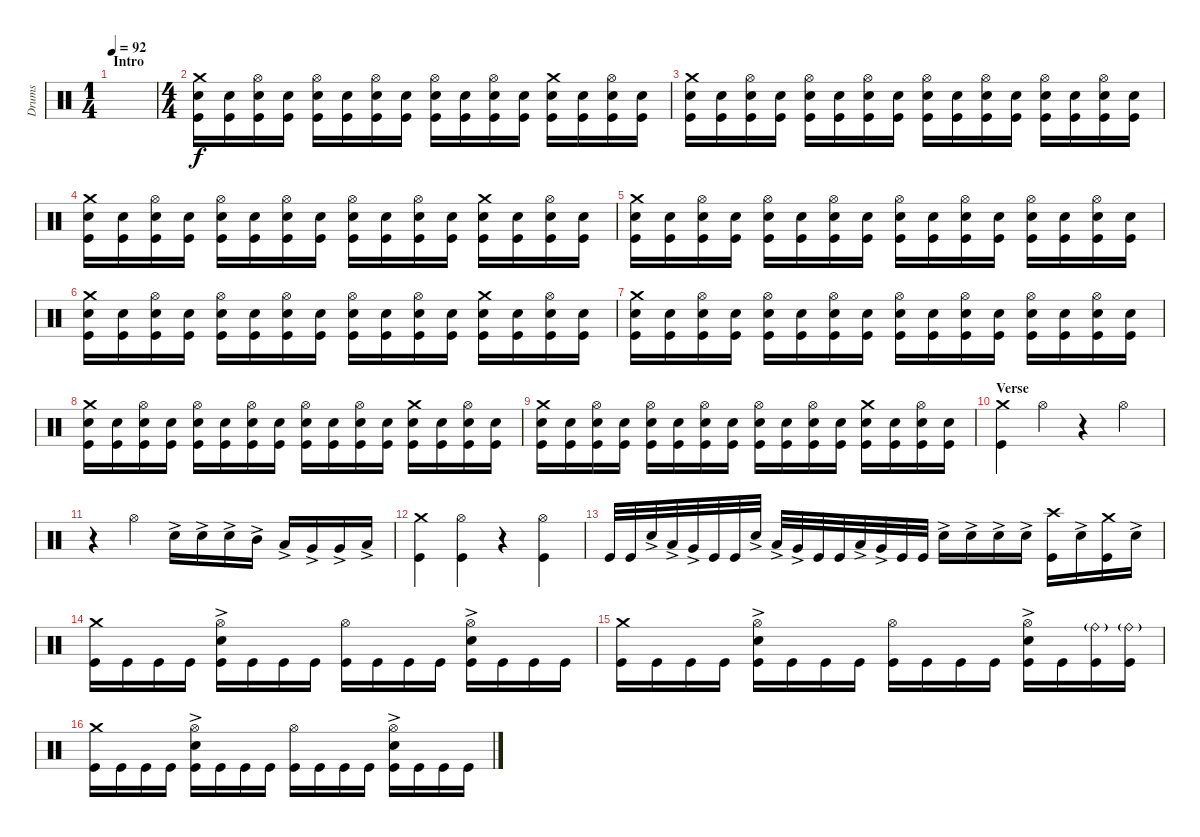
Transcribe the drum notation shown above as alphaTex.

\track ("Drums" "Drums") {instrument percussion}
\staff {score}
\articulation defaults
\ts (1 4)
\section ("" "Intro")
\tempo 92
\clef neutral
\ks c
|
\ts (4 4)
("Kick (hit)" "Snare (hit) 2" "Crash medium (hit)").16 ("Kick (hit)" "Snare (hit) 2").16 ("Kick (hit)" "Hi-Hat (open)" "Snare (hit) 2").16 ("Kick (hit)" "Snare (hit) 2").16 ("Kick (hit)" "Hi-Hat (open)" "Snare (hit) 2").16 ("Kick (hit)" "Snare (hit) 2").16 ("Kick (hit)" "Hi-Hat (open)" "Snare (hit) 2").16 ("Kick (hit)" "Snare (hit) 2").16 ("Kick (hit)" "Hi-Hat (open)" "Snare (hit) 2").16 ("Kick (hit)" "Snare (hit) 2").16 ("Kick (hit)" "Hi-Hat (open)" "Snare (hit) 2").16 ("Kick (hit)" "Snare (hit) 2").16 ("Kick (hit)" "Snare (hit) 2" "Crash medium (hit)").16 ("Kick (hit)" "Snare (hit) 2").16 ("Kick (hit)" "Hi-Hat (open)" "Snare (hit) 2").16 ("Kick (hit)" "Snare (hit) 2").16 |
("Kick (hit)" "Crash medium (hit)" "Snare (hit) 2").16 ("Kick (hit)" "Snare (hit) 2").16 ("Kick (hit)" "Hi-Hat (open)" "Snare (hit) 2").16 ("Kick (hit)" "Snare (hit) 2").16 ("Kick (hit)" "Hi-Hat (open)" "Snare (hit) 2").16 ("Kick (hit)" "Snare (hit) 2").16 ("Kick (hit)" "Hi-Hat (open)" "Snare (hit) 2").16 ("Kick (hit)" "Snare (hit) 2").16 ("Kick (hit)" "Hi-Hat (open)" "Snare (hit) 2").16 ("Kick (hit)" "Snare (hit) 2").16 ("Kick (hit)" "Hi-Hat (open)" "Snare (hit) 2").16 ("Kick (hit)" "Snare (hit) 2").16 ("Kick (hit)" "Hi-Hat (open)" "Snare (hit) 2").16 ("Kick (hit)" "Snare (hit) 2").16 ("Kick (hit)" "Hi-Hat (open)" "Snare (hit) 2").16 ("Kick (hit)" "Snare (hit) 2").16 |
("Kick (hit)" "Snare (hit) 2" "Crash medium (hit)").16 ("Kick (hit)" "Snare (hit) 2").16 ("Kick (hit)" "Hi-Hat (open)" "Snare (hit) 2").16 ("Kick (hit)" "Snare (hit) 2").16 ("Kick (hit)" "Hi-Hat (open)" "Snare (hit) 2").16 ("Kick (hit)" "Snare (hit) 2").16 ("Kick (hit)" "Hi-Hat (open)" "Snare (hit) 2").16 ("Kick (hit)" "Snare (hit) 2").16 ("Kick (hit)" "Hi-Hat (open)" "Snare (hit) 2").16 ("Kick (hit)" "Snare (hit) 2").16 ("Kick (hit)" "Hi-Hat (open)" "Snare (hit) 2").16 ("Kick (hit)" "Snare (hit) 2").16 ("Kick (hit)" "Snare (hit) 2" "Crash medium (hit)").16 ("Kick (hit)" "Snare (hit) 2").16 ("Kick (hit)" "Hi-Hat (open)" "Snare (hit) 2").16 ("Kick (hit)" "Snare (hit) 2").16 |
("Kick (hit)" "Crash medium (hit)" "Snare (hit) 2").16 ("Kick (hit)" "Snare (hit) 2").16 ("Kick (hit)" "Hi-Hat (open)" "Snare (hit) 2").16 ("Kick (hit)" "Snare (hit) 2").16 ("Kick (hit)" "Hi-Hat (open)" "Snare (hit) 2").16 ("Kick (hit)" "Snare (hit) 2").16 ("Kick (hit)" "Hi-Hat (open)" "Snare (hit) 2").16 ("Kick (hit)" "Snare (hit) 2").16 ("Kick (hit)" "Hi-Hat (open)" "Snare (hit) 2").16 ("Kick (hit)" "Snare (hit) 2").16 ("Kick (hit)" "Hi-Hat (open)" "Snare (hit) 2").16 ("Kick (hit)" "Snare (hit) 2").16 ("Kick (hit)" "Hi-Hat (open)" "Snare (hit) 2").16 ("Kick (hit)" "Snare (hit) 2").16 ("Kick (hit)" "Hi-Hat (open)" "Snare (hit) 2").16 ("Kick (hit)" "Snare (hit) 2").16 |
("Kick (hit)" "Snare (hit) 2" "Crash medium (hit)").16 ("Kick (hit)" "Snare (hit) 2").16 ("Kick (hit)" "Hi-Hat (open)" "Snare (hit) 2").16 ("Kick (hit)" "Snare (hit) 2").16 ("Kick (hit)" "Hi-Hat (open)" "Snare (hit) 2").16 ("Kick (hit)" "Snare (hit) 2").16 ("Kick (hit)" "Hi-Hat (open)" "Snare (hit) 2").16 ("Kick (hit)" "Snare (hit) 2").16 ("Kick (hit)" "Hi-Hat (open)" "Snare (hit) 2").16 ("Kick (hit)" "Snare (hit) 2").16 ("Kick (hit)" "Hi-Hat (open)" "Snare (hit) 2").16 ("Kick (hit)" "Snare (hit) 2").16 ("Kick (hit)" "Snare (hit) 2" "Crash medium (hit)").16 ("Kick (hit)" "Snare (hit) 2").16 ("Kick (hit)" "Hi-Hat (open)" "Snare (hit) 2").16 ("Kick (hit)" "Snare (hit) 2").16 |
("Kick (hit)" "Crash medium (hit)" "Snare (hit) 2").16 ("Kick (hit)" "Snare (hit) 2").16 ("Kick (hit)" "Hi-Hat (open)" "Snare (hit) 2").16 ("Kick (hit)" "Snare (hit) 2").16 ("Kick (hit)" "Hi-Hat (open)" "Snare (hit) 2").16 ("Kick (hit)" "Snare (hit) 2").16 ("Kick (hit)" "Hi-Hat (open)" "Snare (hit) 2").16 ("Kick (hit)" "Snare (hit) 2").16 ("Kick (hit)" "Hi-Hat (open)" "Snare (hit) 2").16 ("Kick (hit)" "Snare (hit) 2").16 ("Kick (hit)" "Hi-Hat (open)" "Snare (hit) 2").16 ("Kick (hit)" "Snare (hit) 2").16 ("Kick (hit)" "Hi-Hat (open)" "Snare (hit) 2").16 ("Kick (hit)" "Snare (hit) 2").16 ("Kick (hit)" "Hi-Hat (open)" "Snare (hit) 2").16 ("Kick (hit)" "Snare (hit) 2").16 |
("Kick (hit)" "Snare (hit) 2" "Crash medium (hit)").16 ("Kick (hit)" "Snare (hit) 2").16 ("Kick (hit)" "Hi-Hat (open)" "Snare (hit) 2").16 ("Kick (hit)" "Snare (hit) 2").16 ("Kick (hit)" "Hi-Hat (open)" "Snare (hit) 2").16 ("Kick (hit)" "Snare (hit) 2").16 ("Kick (hit)" "Hi-Hat (open)" "Snare (hit) 2").16 ("Kick (hit)" "Snare (hit) 2").16 ("Kick (hit)" "Hi-Hat (open)" "Snare (hit) 2").16 ("Kick (hit)" "Snare (hit) 2").16 ("Kick (hit)" "Hi-Hat (open)" "Snare (hit) 2").16 ("Kick (hit)" "Snare (hit) 2").16 ("Kick (hit)" "Snare (hit) 2" "Crash medium (hit)").16 ("Kick (hit)" "Snare (hit) 2").16 ("Kick (hit)" "Hi-Hat (open)" "Snare (hit) 2").16 ("Kick (hit)" "Snare (hit) 2").16 |
("Kick (hit)" "Snare (hit) 2" "Crash medium (hit)").16 ("Kick (hit)" "Snare (hit) 2").16 ("Kick (hit)" "Hi-Hat (open)" "Snare (hit) 2").16 ("Kick (hit)" "Snare (hit) 2").16 ("Kick (hit)" "Hi-Hat (open)" "Snare (hit) 2").16 ("Kick (hit)" "Snare (hit) 2").16 ("Kick (hit)" "Hi-Hat (open)" "Snare (hit) 2").16 ("Kick (hit)" "Snare (hit) 2").16 ("Kick (hit)" "Hi-Hat (open)" "Snare (hit) 2").16 ("Kick (hit)" "Snare (hit) 2").16 ("Kick (hit)" "Hi-Hat (open)" "Snare (hit) 2").16 ("Kick (hit)" "Snare (hit) 2").16 ("Kick (hit)" "Snare (hit) 2" "Crash medium (hit)").16 ("Kick (hit)" "Snare (hit) 2").16 ("Kick (hit)" "Hi-Hat (open)" "Snare (hit) 2").16 ("Kick (hit)" "Snare (hit) 2").16 |
\section ("" "Verse")
("Kick (hit)" "Crash medium (hit)").4 "Hi-Hat (open)".4 r.4 "Hi-Hat (open)".4 |
r.4 "Hi-Hat (open)".4 "Snare (hit) 2"{ac}.16 "Snare (hit) 2"{ac}.16 "Snare (hit) 2"{ac}.16 "Mid Tom (hit)"{ac}.16 "Low Tom (hit)"{ac}.16 "Very Low Tom (hit)"{ac}.16 "Very Low Tom (hit)"{ac}.16 "Low Floor Tom (hit)"{ac}.16 |
("Kick (hit)" "Crash medium (hit)").4 ("Hi-Hat (open)" "Kick (hit)").4 r.4 ("Hi-Hat (open)" "Kick (hit)").4 |
"Kick (hit)".32 "Kick (hit)".32 "Snare (hit) 2"{ac}.32 "Low Tom (hit)"{ac}.32 "Very Low Tom (hit)"{ac}.32 "Kick (hit)".32 "Kick (hit)".32 "Snare (hit) 2"{ac}.32 "Low Tom (hit)"{ac}.32 "Very Low Tom (hit)"{ac}.32 "Kick (hit)".32 "Kick (hit)".32 "Low Tom (hit)"{ac}.32 "Very Low Tom (hit)"{ac}.32 "Kick (hit)".32 "Kick (hit)".32 "Snare (hit) 2"{ac}.16 "Snare (hit) 2"{ac}.16 "Snare (hit) 2"{ac}.16 "Snare (hit) 2"{ac}.16 ("Kick (hit)" "Crash high (hit)").16 "Snare (hit) 2"{ac}.16 ("Kick (hit)" "Crash medium (hit)").16 "Snare (hit) 2"{ac}.16 |
("Kick (hit)" "Crash medium (hit)").16 "Kick (hit)".16 "Kick (hit)".16 "Kick (hit)".16 ("Kick (hit)" "Hi-Hat (open)" "Snare (hit) 2"{ac}).16 "Kick (hit)".16 "Kick (hit)".16 "Kick (hit)".16 ("Kick (hit)" "Hi-Hat (open)").16 "Kick (hit)".16 "Kick (hit)".16 "Kick (hit)".16 ("Kick (hit)" "Hi-Hat (open)" "Snare (hit) 2"{ac}).16 "Kick (hit)".16 "Kick (hit)".16 "Kick (hit)".16 |
("Kick (hit)" "Crash medium (hit)").16 "Kick (hit)".16 "Kick (hit)".16 "Kick (hit)".16 ("Kick (hit)" "Hi-Hat (open)" "Snare (hit) 2"{ac}).16 "Kick (hit)".16 "Kick (hit)".16 "Kick (hit)".16 ("Kick (hit)" "Hi-Hat (open)").16 "Kick (hit)".16 "Kick (hit)".16 "Kick (hit)".16 ("Kick (hit)" "Hi-Hat (open)" "Snare (hit) 2"{ac}).16 "Kick (hit)".16 ("Kick (hit)" "Ride (bell)"{g}).16 ("Kick (hit)" "Ride (bell)"{g}).16 |
("Kick (hit)" "Crash medium (hit)").16 "Kick (hit)".16 "Kick (hit)".16 "Kick (hit)".16 ("Kick (hit)" "Hi-Hat (open)" "Snare (hit) 2"{ac}).16 "Kick (hit)".16 "Kick (hit)".16 "Kick (hit)".16 ("Kick (hit)" "Hi-Hat (open)").16 "Kick (hit)".16 "Kick (hit)".16 "Kick (hit)".16 ("Kick (hit)" "Hi-Hat (open)" "Snare (hit) 2"{ac}).16 "Kick (hit)".16 "Kick (hit)".16 "Kick (hit)".16
